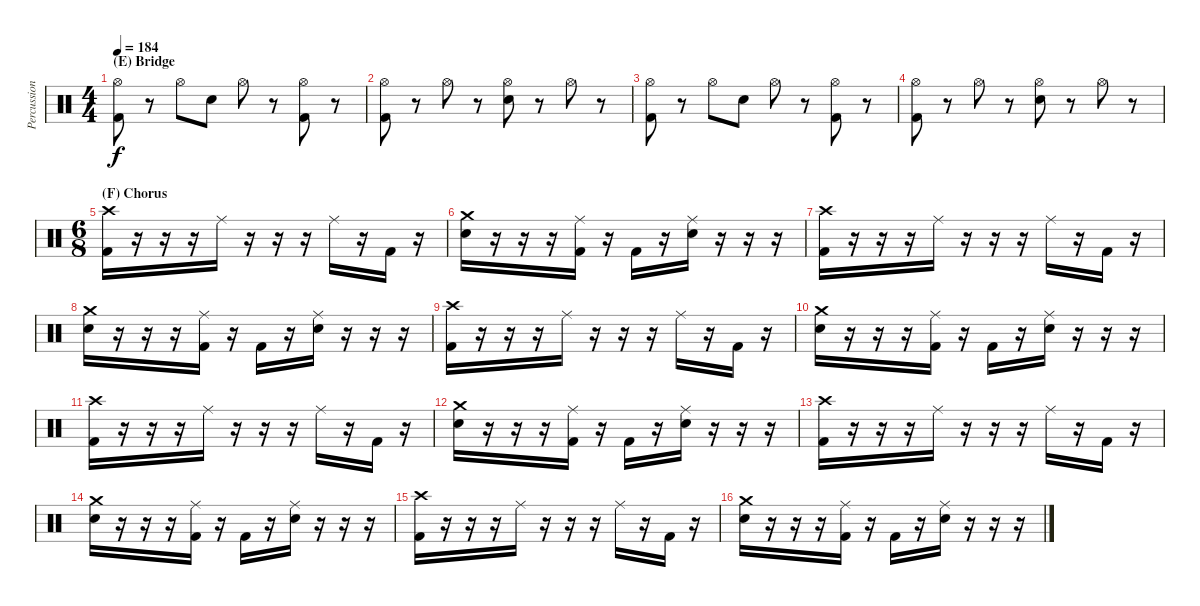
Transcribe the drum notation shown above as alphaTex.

\track ("Percussion" "Percussion") {instrument percussion}
\staff {score}
\articulation defaults
\ts (4 4)
\section ("" "(E) Bridge")
\tempo 184
\clef neutral
\ks c
("Hi-Hat (open)" "Kick (hit) 2").8{dy f} r.8 "Hi-Hat (open)".8 "Electric Snare (hit)".8 "Hi-Hat (open)".8 r.8 ("Hi-Hat (open)" "Kick (hit) 2").8 r.8 |
("Hi-Hat (open)" "Kick (hit) 2").8 r.8 "Hi-Hat (open)".8 r.8 ("Hi-Hat (open)" "Electric Snare (hit)").8 r.8 "Hi-Hat (open)".8 r.8 |
("Hi-Hat (open)" "Kick (hit) 2").8 r.8 "Hi-Hat (open)".8 "Electric Snare (hit)".8 "Hi-Hat (open)".8 r.8 ("Hi-Hat (open)" "Kick (hit) 2").8 r.8 |
("Hi-Hat (open)" "Kick (hit) 2").8 r.8 "Hi-Hat (open)".8 r.8 ("Hi-Hat (open)" "Electric Snare (hit)").8 r.8 "Hi-Hat (open)".8 r.8 |
\ts (6 8)
\section ("" "(F) Chorus")
("Crash high (hit)" "Kick (hit) 2").16 r.16 r.16 r.16 "Ride (middle)".16 r.16 r.16 r.16 "Ride (middle)".16 r.16 "Kick (hit) 2".16 r.16 |
("Crash medium (hit)" "Electric Snare (hit)").16 r.16 r.16 r.16 ("Ride (middle)" "Kick (hit) 2").16 r.16 "Kick (hit) 2".16 r.16 ("Ride (middle)" "Electric Snare (hit)").16 r.16 r.16 r.16 |
("Crash high (hit)" "Kick (hit) 2").16 r.16 r.16 r.16 "Ride (middle)".16 r.16 r.16 r.16 "Ride (middle)".16 r.16 "Kick (hit) 2".16 r.16 |
("Crash medium (hit)" "Electric Snare (hit)").16 r.16 r.16 r.16 ("Ride (middle)" "Kick (hit) 2").16 r.16 "Kick (hit) 2".16 r.16 ("Ride (middle)" "Electric Snare (hit)").16 r.16 r.16 r.16 |
("Crash high (hit)" "Kick (hit) 2").16 r.16 r.16 r.16 "Ride (middle)".16 r.16 r.16 r.16 "Ride (middle)".16 r.16 "Kick (hit) 2".16 r.16 |
("Crash medium (hit)" "Electric Snare (hit)").16 r.16 r.16 r.16 ("Ride (middle)" "Kick (hit) 2").16 r.16 "Kick (hit) 2".16 r.16 ("Ride (middle)" "Electric Snare (hit)").16 r.16 r.16 r.16 |
("Crash high (hit)" "Kick (hit) 2").16 r.16 r.16 r.16 "Ride (middle)".16 r.16 r.16 r.16 "Ride (middle)".16 r.16 "Kick (hit) 2".16 r.16 |
("Crash medium (hit)" "Electric Snare (hit)").16 r.16 r.16 r.16 ("Ride (middle)" "Kick (hit) 2").16 r.16 "Kick (hit) 2".16 r.16 ("Ride (middle)" "Electric Snare (hit)").16 r.16 r.16 r.16 |
("Crash high (hit)" "Kick (hit) 2").16 r.16 r.16 r.16 "Ride (middle)".16 r.16 r.16 r.16 "Ride (middle)".16 r.16 "Kick (hit) 2".16 r.16 |
("Crash medium (hit)" "Electric Snare (hit)").16 r.16 r.16 r.16 ("Ride (middle)" "Kick (hit) 2").16 r.16 "Kick (hit) 2".16 r.16 ("Ride (middle)" "Electric Snare (hit)").16 r.16 r.16 r.16 |
("Crash high (hit)" "Kick (hit) 2").16 r.16 r.16 r.16 "Ride (middle)".16 r.16 r.16 r.16 "Ride (middle)".16 r.16 "Kick (hit) 2".16 r.16 |
("Crash medium (hit)" "Electric Snare (hit)").16 r.16 r.16 r.16 ("Ride (middle)" "Kick (hit) 2").16 r.16 "Kick (hit) 2".16 r.16 ("Ride (middle)" "Electric Snare (hit)").16 r.16 r.16 r.16
